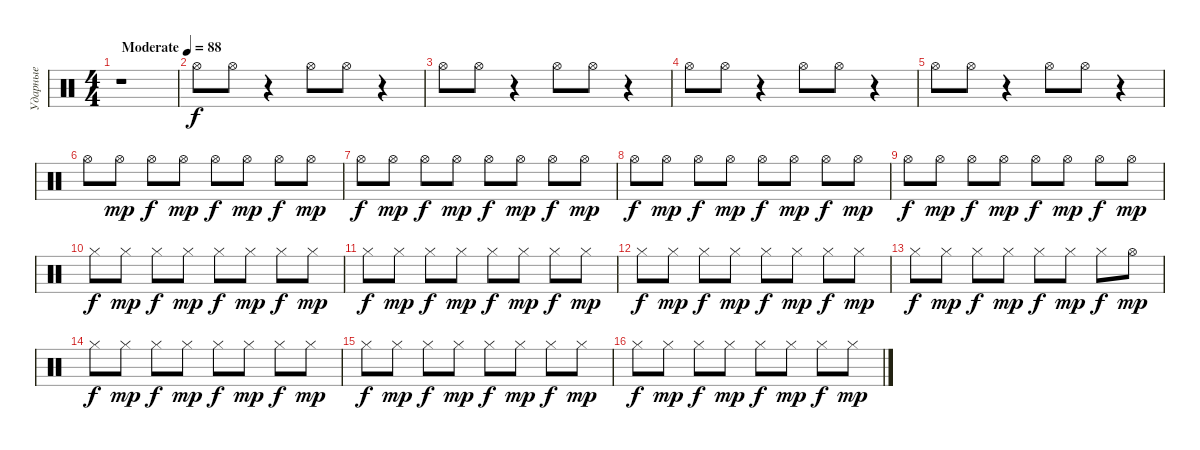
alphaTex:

\track ("Ударные" "Ударные") {instrument percussion}
\staff {score}
\articulation defaults
\ts (4 4)
\tempo (88 "Moderate")
\clef neutral
\ks c
r.1{dy f} |
"Hi-Hat (open)".8 "Hi-Hat (open)".8 r.4 "Hi-Hat (open)".8 "Hi-Hat (open)".8 r.4 |
"Hi-Hat (open)".8 "Hi-Hat (open)".8 r.4 "Hi-Hat (open)".8 "Hi-Hat (open)".8 r.4 |
"Hi-Hat (open)".8 "Hi-Hat (open)".8 r.4 "Hi-Hat (open)".8 "Hi-Hat (open)".8 r.4 |
"Hi-Hat (open)".8 "Hi-Hat (open)".8 r.4 "Hi-Hat (open)".8 "Hi-Hat (open)".8 r.4 |
"Hi-Hat (open)".8 "Hi-Hat (open)".8{dy mp} "Hi-Hat (open)".8{dy f} "Hi-Hat (open)".8{dy mp} "Hi-Hat (open)".8{dy f} "Hi-Hat (open)".8{dy mp} "Hi-Hat (open)".8{dy f} "Hi-Hat (open)".8{dy mp} |
"Hi-Hat (open)".8{dy f} "Hi-Hat (open)".8{dy mp} "Hi-Hat (open)".8{dy f} "Hi-Hat (open)".8{dy mp} "Hi-Hat (open)".8{dy f} "Hi-Hat (open)".8{dy mp} "Hi-Hat (open)".8{dy f} "Hi-Hat (open)".8{dy mp} |
"Hi-Hat (open)".8{dy f} "Hi-Hat (open)".8{dy mp} "Hi-Hat (open)".8{dy f} "Hi-Hat (open)".8{dy mp} "Hi-Hat (open)".8{dy f} "Hi-Hat (open)".8{dy mp} "Hi-Hat (open)".8{dy f} "Hi-Hat (open)".8{dy mp} |
"Hi-Hat (open)".8{dy f} "Hi-Hat (open)".8{dy mp} "Hi-Hat (open)".8{dy f} "Hi-Hat (open)".8{dy mp} "Hi-Hat (open)".8{dy f} "Hi-Hat (open)".8{dy mp} "Hi-Hat (open)".8{dy f} "Hi-Hat (open)".8{dy mp} |
"Hi-Hat (closed)".8{dy f} "Hi-Hat (closed)".8{dy mp} "Hi-Hat (closed)".8{dy f} "Hi-Hat (closed)".8{dy mp} "Hi-Hat (closed)".8{dy f} "Hi-Hat (closed)".8{dy mp} "Hi-Hat (closed)".8{dy f} "Hi-Hat (closed)".8{dy mp} |
"Hi-Hat (closed)".8{dy f} "Hi-Hat (closed)".8{dy mp} "Hi-Hat (closed)".8{dy f} "Hi-Hat (closed)".8{dy mp} "Hi-Hat (closed)".8{dy f} "Hi-Hat (closed)".8{dy mp} "Hi-Hat (closed)".8{dy f} "Hi-Hat (closed)".8{dy mp} |
"Hi-Hat (closed)".8{dy f} "Hi-Hat (closed)".8{dy mp} "Hi-Hat (closed)".8{dy f} "Hi-Hat (closed)".8{dy mp} "Hi-Hat (closed)".8{dy f} "Hi-Hat (closed)".8{dy mp} "Hi-Hat (closed)".8{dy f} "Hi-Hat (closed)".8{dy mp} |
"Hi-Hat (closed)".8{dy f} "Hi-Hat (closed)".8{dy mp} "Hi-Hat (closed)".8{dy f} "Hi-Hat (closed)".8{dy mp} "Hi-Hat (closed)".8{dy f} "Hi-Hat (closed)".8{dy mp} "Hi-Hat (closed)".8{dy f} "Hi-Hat (open)".8{dy mp} |
"Hi-Hat (closed)".8{dy f} "Hi-Hat (closed)".8{dy mp} "Hi-Hat (closed)".8{dy f} "Hi-Hat (closed)".8{dy mp} "Hi-Hat (closed)".8{dy f} "Hi-Hat (closed)".8{dy mp} "Hi-Hat (closed)".8{dy f} "Hi-Hat (closed)".8{dy mp} |
"Hi-Hat (closed)".8{dy f} "Hi-Hat (closed)".8{dy mp} "Hi-Hat (closed)".8{dy f} "Hi-Hat (closed)".8{dy mp} "Hi-Hat (closed)".8{dy f} "Hi-Hat (closed)".8{dy mp} "Hi-Hat (closed)".8{dy f} "Hi-Hat (closed)".8{dy mp} |
"Hi-Hat (closed)".8{dy f} "Hi-Hat (closed)".8{dy mp} "Hi-Hat (closed)".8{dy f} "Hi-Hat (closed)".8{dy mp} "Hi-Hat (closed)".8{dy f} "Hi-Hat (closed)".8{dy mp} "Hi-Hat (closed)".8{dy f} "Hi-Hat (closed)".8{dy mp}
